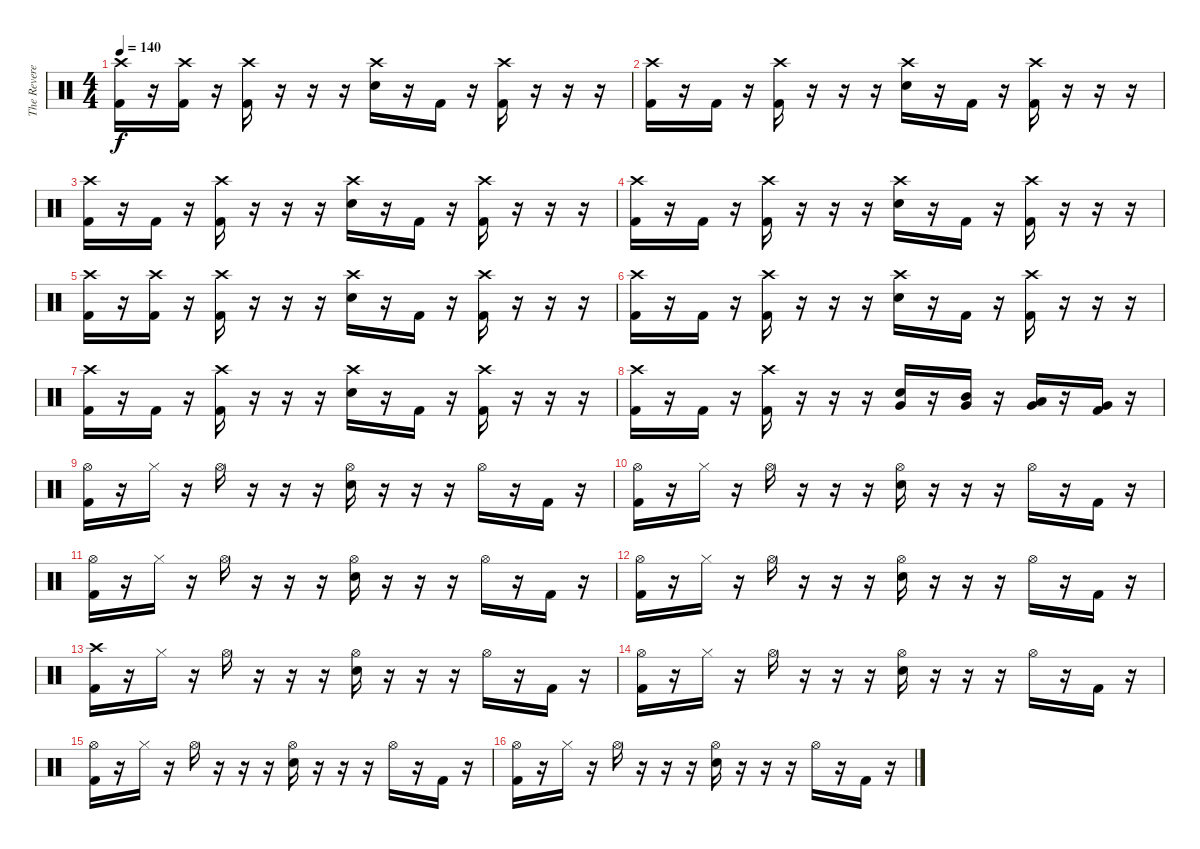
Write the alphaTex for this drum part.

\track ("The Reverend" "The Revere") {instrument percussion}
\staff {score}
\articulation defaults
\ts (4 4)
\tempo 140
\clef neutral
\ks c
("Crash high (hit)" "Kick (hit) 2").16{dy f} r.16 ("Crash high (hit)" "Kick (hit) 2").16 r.16 ("Crash high (hit)" "Kick (hit) 2").16 r.16 r.16 r.16 ("Crash high (hit)" "Electric Snare (hit)").16 r.16 "Kick (hit) 2".16 r.16 ("Crash high (hit)" "Kick (hit) 2").16 r.16 r.16 r.16 |
("Crash high (hit)" "Kick (hit) 2").16 r.16 "Kick (hit) 2".16 r.16 ("Crash high (hit)" "Kick (hit) 2").16 r.16 r.16 r.16 ("Crash high (hit)" "Electric Snare (hit)").16 r.16 "Kick (hit) 2".16 r.16 ("Crash high (hit)" "Kick (hit) 2").16 r.16 r.16 r.16 |
("Crash high (hit)" "Kick (hit) 2").16 r.16 "Kick (hit) 2".16 r.16 ("Crash high (hit)" "Kick (hit) 2").16 r.16 r.16 r.16 ("Crash high (hit)" "Electric Snare (hit)").16 r.16 "Kick (hit) 2".16 r.16 ("Crash high (hit)" "Kick (hit) 2").16 r.16 r.16 r.16 |
("Crash high (hit)" "Kick (hit) 2").16 r.16 "Kick (hit) 2".16 r.16 ("Crash high (hit)" "Kick (hit) 2").16 r.16 r.16 r.16 ("Crash high (hit)" "Electric Snare (hit)").16 r.16 "Kick (hit) 2".16 r.16 ("Crash high (hit)" "Kick (hit) 2").16 r.16 r.16 r.16 |
("Crash high (hit)" "Kick (hit) 2").16 r.16 ("Crash high (hit)" "Kick (hit) 2").16 r.16 ("Crash high (hit)" "Kick (hit) 2").16 r.16 r.16 r.16 ("Crash high (hit)" "Electric Snare (hit)").16 r.16 "Kick (hit) 2".16 r.16 ("Crash high (hit)" "Kick (hit) 2").16 r.16 r.16 r.16 |
("Crash high (hit)" "Kick (hit) 2").16 r.16 "Kick (hit) 2".16 r.16 ("Crash high (hit)" "Kick (hit) 2").16 r.16 r.16 r.16 ("Crash high (hit)" "Electric Snare (hit)").16 r.16 "Kick (hit) 2".16 r.16 ("Crash high (hit)" "Kick (hit) 2").16 r.16 r.16 r.16 |
("Crash high (hit)" "Kick (hit) 2").16 r.16 "Kick (hit) 2".16 r.16 ("Crash high (hit)" "Kick (hit) 2").16 r.16 r.16 r.16 ("Crash high (hit)" "Electric Snare (hit)").16 r.16 "Kick (hit) 2".16 r.16 ("Crash high (hit)" "Kick (hit) 2").16 r.16 r.16 r.16 |
("Crash high (hit)" "Kick (hit) 2").16 r.16 "Kick (hit) 2".16 r.16 ("Crash high (hit)" "Kick (hit) 2").16 r.16 r.16 r.16 ("Very Low Tom (hit)" "Electric Snare (hit)").16 r.16 ("Very Low Tom (hit)" "Mid Tom (hit)").16 r.16 ("Very Low Tom (hit)" "Low Tom (hit)").16 r.16 ("Very Low Tom (hit)" "Kick (hit) 2").16 r.16 |
("Hi-Hat (open)" "Kick (hit) 2").16 r.16 "Hi-Hat (closed)".16 r.16 "Hi-Hat (open)".16 r.16 r.16 r.16 ("Hi-Hat (open)" "Electric Snare (hit)").16 r.16 r.16 r.16 "Hi-Hat (open)".16 r.16 "Kick (hit) 2".16 r.16 |
("Hi-Hat (open)" "Kick (hit) 2").16 r.16 "Hi-Hat (closed)".16 r.16 "Hi-Hat (open)".16 r.16 r.16 r.16 ("Hi-Hat (open)" "Electric Snare (hit)").16 r.16 r.16 r.16 "Hi-Hat (open)".16 r.16 "Kick (hit) 2".16 r.16 |
("Hi-Hat (open)" "Kick (hit) 2").16 r.16 "Hi-Hat (closed)".16 r.16 "Hi-Hat (open)".16 r.16 r.16 r.16 ("Hi-Hat (open)" "Electric Snare (hit)").16 r.16 r.16 r.16 "Hi-Hat (open)".16 r.16 "Kick (hit) 2".16 r.16 |
("Hi-Hat (open)" "Kick (hit) 2").16 r.16 "Hi-Hat (closed)".16 r.16 "Hi-Hat (open)".16 r.16 r.16 r.16 ("Hi-Hat (open)" "Electric Snare (hit)").16 r.16 r.16 r.16 "Hi-Hat (open)".16 r.16 "Kick (hit) 2".16 r.16 |
("Crash high (hit)" "Kick (hit) 2").16 r.16 "Hi-Hat (closed)".16 r.16 "Hi-Hat (open)".16 r.16 r.16 r.16 ("Hi-Hat (open)" "Electric Snare (hit)").16 r.16 r.16 r.16 "Hi-Hat (open)".16 r.16 "Kick (hit) 2".16 r.16 |
("Hi-Hat (open)" "Kick (hit) 2").16 r.16 "Hi-Hat (closed)".16 r.16 "Hi-Hat (open)".16 r.16 r.16 r.16 ("Hi-Hat (open)" "Electric Snare (hit)").16 r.16 r.16 r.16 "Hi-Hat (open)".16 r.16 "Kick (hit) 2".16 r.16 |
("Hi-Hat (open)" "Kick (hit) 2").16 r.16 "Hi-Hat (closed)".16 r.16 "Hi-Hat (open)".16 r.16 r.16 r.16 ("Hi-Hat (open)" "Electric Snare (hit)").16 r.16 r.16 r.16 "Hi-Hat (open)".16 r.16 "Kick (hit) 2".16 r.16 |
("Hi-Hat (open)" "Kick (hit) 2").16 r.16 "Hi-Hat (closed)".16 r.16 "Hi-Hat (open)".16 r.16 r.16 r.16 ("Hi-Hat (open)" "Electric Snare (hit)").16 r.16 r.16 r.16 "Hi-Hat (open)".16 r.16 "Kick (hit) 2".16 r.16
